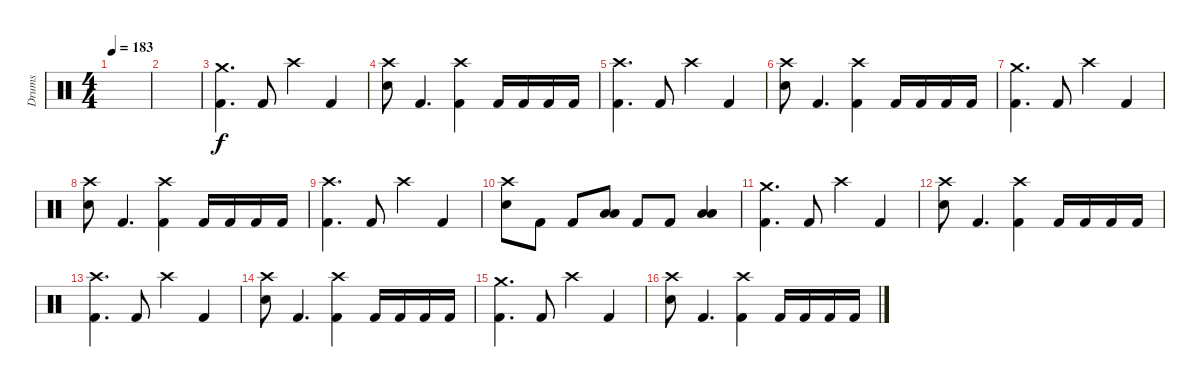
\track ("Drums" "Drums") {instrument percussion}
\staff {score}
\articulation defaults
\ts (4 4)
\tempo 183
\clef neutral
\ks c
|
|
("Crash medium (hit)" "Kick (hit) 2").4{d} "Kick (hit) 2".8 "Crash high (hit)".4 "Kick (hit) 2".4 |
("Crash high (hit)" "Electric Snare (hit)").8 "Kick (hit) 2".4{d} ("Crash high (hit)" "Kick (hit) 2").4 "Kick (hit) 2".16 "Kick (hit) 2".16 "Kick (hit) 2".16 "Kick (hit) 2".16 |
("Crash high (hit)" "Kick (hit) 2").4{d} "Kick (hit) 2".8 "Crash high (hit)".4 "Kick (hit) 2".4 |
("Crash high (hit)" "Electric Snare (hit)").8 "Kick (hit) 2".4{d} ("Crash high (hit)" "Kick (hit) 2").4 "Kick (hit) 2".16 "Kick (hit) 2".16 "Kick (hit) 2".16 "Kick (hit) 2".16 |
("Crash medium (hit)" "Kick (hit) 2").4{d} "Kick (hit) 2".8 "Crash high (hit)".4 "Kick (hit) 2".4 |
("Crash high (hit)" "Electric Snare (hit)").8 "Kick (hit) 2".4{d} ("Crash high (hit)" "Kick (hit) 2").4 "Kick (hit) 2".16 "Kick (hit) 2".16 "Kick (hit) 2".16 "Kick (hit) 2".16 |
("Crash high (hit)" "Kick (hit) 2").4{d} "Kick (hit) 2".8 "Crash high (hit)".4 "Kick (hit) 2".4 |
("Crash high (hit)" "Electric Snare (hit)").8 "Kick (hit) 2".8 "Kick (hit) 2".8 ("Low Tom (hit)" "Low Tom (hit)").8 "Kick (hit) 2".8 "Kick (hit) 2".8 ("Low Tom (hit)" "Low Floor Tom (hit)").4 |
("Crash medium (hit)" "Kick (hit) 2").4{d} "Kick (hit) 2".8 "Crash high (hit)".4 "Kick (hit) 2".4 |
("Crash high (hit)" "Electric Snare (hit)").8 "Kick (hit) 2".4{d} ("Crash high (hit)" "Kick (hit) 2").4 "Kick (hit) 2".16 "Kick (hit) 2".16 "Kick (hit) 2".16 "Kick (hit) 2".16 |
("Crash high (hit)" "Kick (hit) 2").4{d} "Kick (hit) 2".8 "Crash high (hit)".4 "Kick (hit) 2".4 |
("Crash high (hit)" "Electric Snare (hit)").8 "Kick (hit) 2".4{d} ("Crash high (hit)" "Kick (hit) 2").4 "Kick (hit) 2".16 "Kick (hit) 2".16 "Kick (hit) 2".16 "Kick (hit) 2".16 |
("Crash medium (hit)" "Kick (hit) 2").4{d} "Kick (hit) 2".8 "Crash high (hit)".4 "Kick (hit) 2".4 |
("Crash high (hit)" "Electric Snare (hit)").8 "Kick (hit) 2".4{d} ("Crash high (hit)" "Kick (hit) 2").4 "Kick (hit) 2".16 "Kick (hit) 2".16 "Kick (hit) 2".16 "Kick (hit) 2".16
